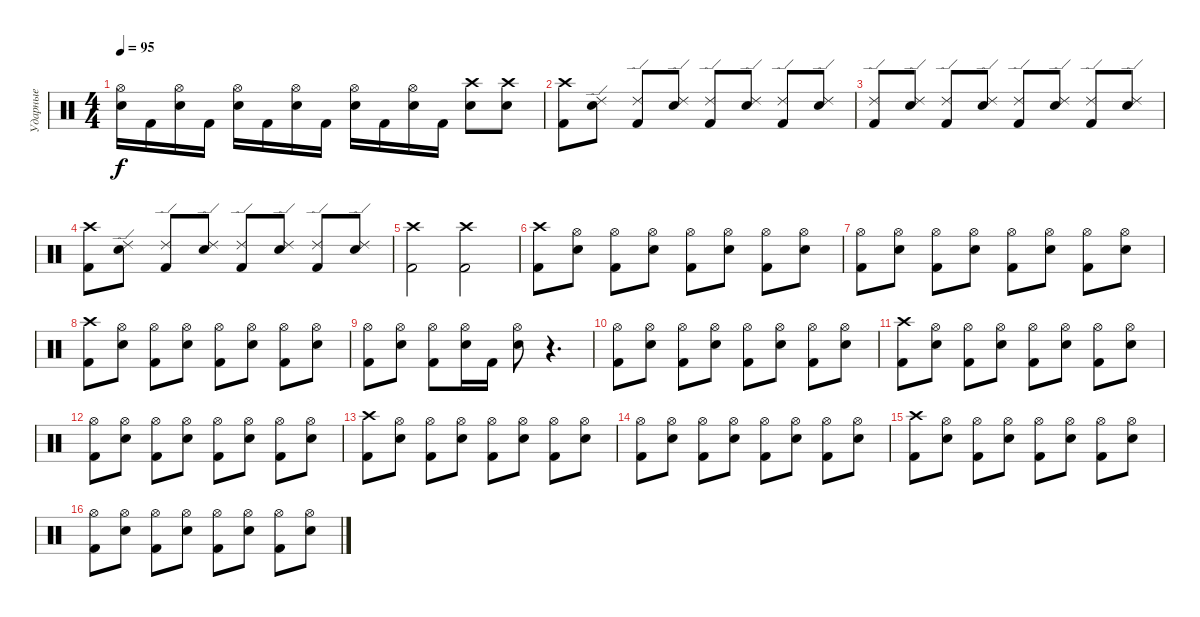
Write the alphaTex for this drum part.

\track ("Ударные" "Ударные") {instrument percussion}
\staff {score}
\articulation defaults
\ts (4 4)
\tempo 95
\clef neutral
\ks c
("Electric Snare (hit)" "Hi-Hat (open)").16{dy f} "Kick (hit) 2".16 ("Electric Snare (hit)" "Hi-Hat (open)").16 "Kick (hit) 2".16 ("Electric Snare (hit)" "Hi-Hat (open)").16 "Kick (hit) 2".16 ("Electric Snare (hit)" "Hi-Hat (open)").16 "Kick (hit) 2".16 ("Electric Snare (hit)" "Hi-Hat (open)").16 "Kick (hit) 2".16 ("Electric Snare (hit)" "Hi-Hat (open)").16 "Kick (hit) 2".16 ("Electric Snare (hit)" "Crash high (hit)").8 ("Electric Snare (hit)" "Crash high (hit)").8 |
("Kick (hit) 2" "Crash high (hit)").8 ("Electric Snare (hit)" "Ride (edge) 2").8 ("Kick (hit) 2" "Ride (edge) 2").8 ("Electric Snare (hit)" "Ride (edge) 2").8 ("Kick (hit) 2" "Ride (edge) 2").8 ("Electric Snare (hit)" "Ride (edge) 2").8 ("Kick (hit) 2" "Ride (edge) 2").8 ("Electric Snare (hit)" "Ride (edge) 2").8 |
("Kick (hit) 2" "Ride (edge) 2").8 ("Electric Snare (hit)" "Ride (edge) 2").8 ("Kick (hit) 2" "Ride (edge) 2").8 ("Electric Snare (hit)" "Ride (edge) 2").8 ("Kick (hit) 2" "Ride (edge) 2").8 ("Electric Snare (hit)" "Ride (edge) 2").8 ("Kick (hit) 2" "Ride (edge) 2").8 ("Electric Snare (hit)" "Ride (edge) 2").8 |
("Kick (hit) 2" "Crash high (hit)").8 ("Electric Snare (hit)" "Ride (edge) 2").8 ("Kick (hit) 2" "Ride (edge) 2").8 ("Electric Snare (hit)" "Ride (edge) 2").8 ("Kick (hit) 2" "Ride (edge) 2").8 ("Electric Snare (hit)" "Ride (edge) 2").8 ("Kick (hit) 2" "Ride (edge) 2").8 ("Electric Snare (hit)" "Ride (edge) 2").8 |
("Kick (hit) 2" "Crash high (hit)").2 ("Kick (hit) 2" "Crash high (hit)").2 |
("Kick (hit) 2" "Crash high (hit)").8 ("Electric Snare (hit)" "Hi-Hat (open)").8 ("Kick (hit) 2" "Hi-Hat (open)").8 ("Electric Snare (hit)" "Hi-Hat (open)").8 ("Kick (hit) 2" "Hi-Hat (open)").8 ("Electric Snare (hit)" "Hi-Hat (open)").8 ("Kick (hit) 2" "Hi-Hat (open)").8 ("Electric Snare (hit)" "Hi-Hat (open)").8 |
("Kick (hit) 2" "Hi-Hat (open)").8 ("Electric Snare (hit)" "Hi-Hat (open)").8 ("Kick (hit) 2" "Hi-Hat (open)").8 ("Electric Snare (hit)" "Hi-Hat (open)").8 ("Kick (hit) 2" "Hi-Hat (open)").8 ("Electric Snare (hit)" "Hi-Hat (open)").8 ("Kick (hit) 2" "Hi-Hat (open)").8 ("Electric Snare (hit)" "Hi-Hat (open)").8 |
("Kick (hit) 2" "Crash high (hit)").8 ("Electric Snare (hit)" "Hi-Hat (open)").8 ("Kick (hit) 2" "Hi-Hat (open)").8 ("Electric Snare (hit)" "Hi-Hat (open)").8 ("Kick (hit) 2" "Hi-Hat (open)").8 ("Electric Snare (hit)" "Hi-Hat (open)").8 ("Kick (hit) 2" "Hi-Hat (open)").8 ("Electric Snare (hit)" "Hi-Hat (open)").8 |
("Kick (hit) 2" "Hi-Hat (open)").8 ("Electric Snare (hit)" "Hi-Hat (open)").8 ("Kick (hit) 2" "Hi-Hat (open)").8 ("Electric Snare (hit)" "Hi-Hat (open)").16 "Kick (hit) 2".16 ("Electric Snare (hit)" "Hi-Hat (open)").8 r.4{d} |
("Kick (hit) 2" "Hi-Hat (open)").8 ("Electric Snare (hit)" "Hi-Hat (open)").8 ("Kick (hit) 2" "Hi-Hat (open)").8 ("Electric Snare (hit)" "Hi-Hat (open)").8 ("Kick (hit) 2" "Hi-Hat (open)").8 ("Electric Snare (hit)" "Hi-Hat (open)").8 ("Kick (hit) 2" "Hi-Hat (open)").8 ("Electric Snare (hit)" "Hi-Hat (open)").8 |
("Kick (hit) 2" "Crash high (hit)").8 ("Electric Snare (hit)" "Hi-Hat (open)").8 ("Kick (hit) 2" "Hi-Hat (open)").8 ("Electric Snare (hit)" "Hi-Hat (open)").8 ("Kick (hit) 2" "Hi-Hat (open)").8 ("Electric Snare (hit)" "Hi-Hat (open)").8 ("Kick (hit) 2" "Hi-Hat (open)").8 ("Electric Snare (hit)" "Hi-Hat (open)").8 |
("Kick (hit) 2" "Hi-Hat (open)").8 ("Electric Snare (hit)" "Hi-Hat (open)").8 ("Kick (hit) 2" "Hi-Hat (open)").8 ("Electric Snare (hit)" "Hi-Hat (open)").8 ("Kick (hit) 2" "Hi-Hat (open)").8 ("Electric Snare (hit)" "Hi-Hat (open)").8 ("Kick (hit) 2" "Hi-Hat (open)").8 ("Electric Snare (hit)" "Hi-Hat (open)").8 |
("Kick (hit) 2" "Crash high (hit)").8 ("Electric Snare (hit)" "Hi-Hat (open)").8 ("Kick (hit) 2" "Hi-Hat (open)").8 ("Electric Snare (hit)" "Hi-Hat (open)").8 ("Kick (hit) 2" "Hi-Hat (open)").8 ("Electric Snare (hit)" "Hi-Hat (open)").8 ("Kick (hit) 2" "Hi-Hat (open)").8 ("Electric Snare (hit)" "Hi-Hat (open)").8 |
("Kick (hit) 2" "Hi-Hat (open)").8 ("Electric Snare (hit)" "Hi-Hat (open)").8 ("Kick (hit) 2" "Hi-Hat (open)").8 ("Electric Snare (hit)" "Hi-Hat (open)").8 ("Kick (hit) 2" "Hi-Hat (open)").8 ("Electric Snare (hit)" "Hi-Hat (open)").8 ("Kick (hit) 2" "Hi-Hat (open)").8 ("Electric Snare (hit)" "Hi-Hat (open)").8 |
("Kick (hit) 2" "Crash high (hit)").8 ("Electric Snare (hit)" "Hi-Hat (open)").8 ("Kick (hit) 2" "Hi-Hat (open)").8 ("Electric Snare (hit)" "Hi-Hat (open)").8 ("Kick (hit) 2" "Hi-Hat (open)").8 ("Electric Snare (hit)" "Hi-Hat (open)").8 ("Kick (hit) 2" "Hi-Hat (open)").8 ("Electric Snare (hit)" "Hi-Hat (open)").8 |
("Kick (hit) 2" "Hi-Hat (open)").8 ("Electric Snare (hit)" "Hi-Hat (open)").8 ("Kick (hit) 2" "Hi-Hat (open)").8 ("Electric Snare (hit)" "Hi-Hat (open)").8 ("Kick (hit) 2" "Hi-Hat (open)").8 ("Electric Snare (hit)" "Hi-Hat (open)").8 ("Kick (hit) 2" "Hi-Hat (open)").8 ("Electric Snare (hit)" "Hi-Hat (open)").8
